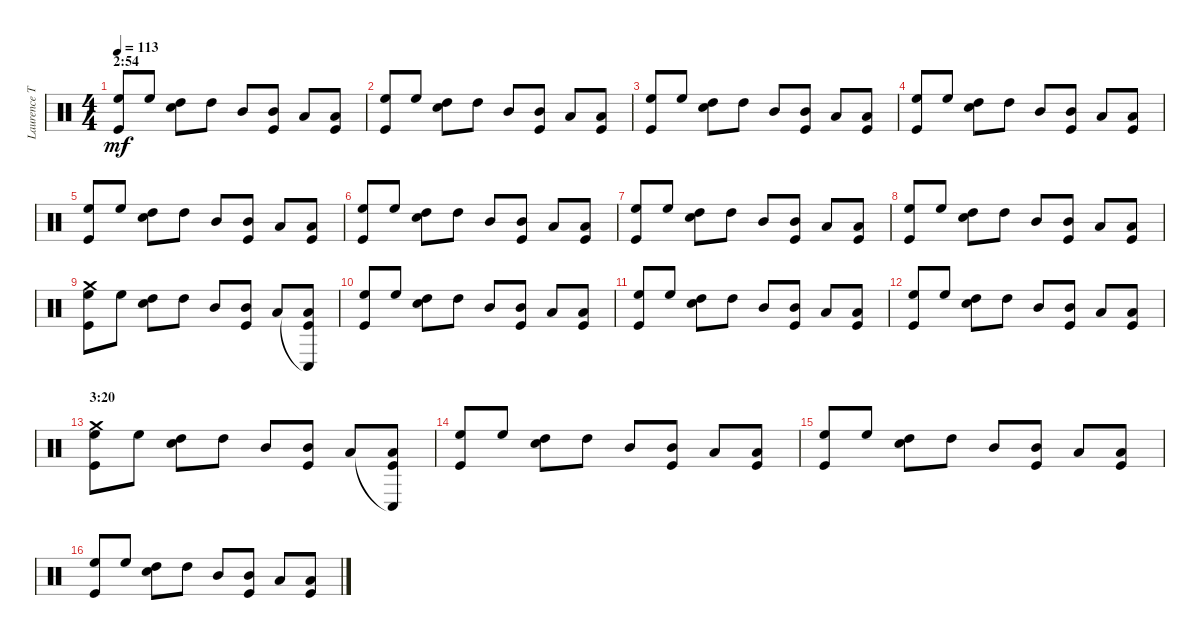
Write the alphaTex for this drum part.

\track ("Laurence Tolhurst (drums)" "Laurence T") {instrument percussion}
\staff {score}
\articulation defaults
\ts (4 4)
\section ("" "2:54")
\tempo 113
\clef neutral
\ks c
("High Floor Tom (hit)" "Kick (hit)").8{dy mf} "High Floor Tom (hit)".8 ("High Tom (hit)" "Snare (hit) 2").8 "High Tom (hit)".8 "Mid Tom (hit)".8 ("Mid Tom (hit)" "Kick (hit)").8 "Low Tom (hit)".8 ("Low Tom (hit)" "Kick (hit)").8 |
("High Floor Tom (hit)" "Kick (hit)").8 "High Floor Tom (hit)".8 ("High Tom (hit)" "Snare (hit) 2").8 "High Tom (hit)".8 "Mid Tom (hit)".8 ("Mid Tom (hit)" "Kick (hit)").8 "Low Tom (hit)".8 ("Low Tom (hit)" "Kick (hit)").8 |
("High Floor Tom (hit)" "Kick (hit)").8 "High Floor Tom (hit)".8 ("High Tom (hit)" "Snare (hit) 2").8 "High Tom (hit)".8 "Mid Tom (hit)".8 ("Mid Tom (hit)" "Kick (hit)").8 "Low Tom (hit)".8 ("Low Tom (hit)" "Kick (hit)").8 |
("High Floor Tom (hit)" "Kick (hit)").8 "High Floor Tom (hit)".8 ("High Tom (hit)" "Snare (hit) 2").8 "High Tom (hit)".8 "Mid Tom (hit)".8 ("Mid Tom (hit)" "Kick (hit)").8 "Low Tom (hit)".8 ("Low Tom (hit)" "Kick (hit)").8 |
("High Floor Tom (hit)" "Kick (hit)").8 "High Floor Tom (hit)".8 ("High Tom (hit)" "Snare (hit) 2").8 "High Tom (hit)".8 "Mid Tom (hit)".8 ("Mid Tom (hit)" "Kick (hit)").8 "Low Tom (hit)".8 ("Low Tom (hit)" "Kick (hit)").8 |
("High Floor Tom (hit)" "Kick (hit)").8 "High Floor Tom (hit)".8 ("High Tom (hit)" "Snare (hit) 2").8 "High Tom (hit)".8 "Mid Tom (hit)".8 ("Mid Tom (hit)" "Kick (hit)").8 "Low Tom (hit)".8 ("Low Tom (hit)" "Kick (hit)").8 |
("High Floor Tom (hit)" "Kick (hit)").8 "High Floor Tom (hit)".8 ("High Tom (hit)" "Snare (hit) 2").8 "High Tom (hit)".8 "Mid Tom (hit)".8 ("Mid Tom (hit)" "Kick (hit)").8 "Low Tom (hit)".8 ("Low Tom (hit)" "Kick (hit)").8 |
("High Floor Tom (hit)" "Kick (hit)").8 "High Floor Tom (hit)".8 ("High Tom (hit)" "Snare (hit) 2").8 "High Tom (hit)".8 "Mid Tom (hit)".8 ("Mid Tom (hit)" "Kick (hit)").8 "Low Tom (hit)".8 ("Low Tom (hit)" "Kick (hit)").8 |
("Crash medium (hit)" "High Floor Tom (hit)" "Kick (hit)").8 "High Floor Tom (hit)".8 ("High Tom (hit)" "Snare (hit) 2").8 "High Tom (hit)".8 "Mid Tom (hit)".8 ("Mid Tom (hit)" "Kick (hit)").8 "Low Tom (hit)".8 ("Conga low (hit)"{t} "Low Tom (hit)" "Kick (hit)").8 |
("High Floor Tom (hit)" "Kick (hit)").8 "High Floor Tom (hit)".8 ("High Tom (hit)" "Snare (hit) 2").8 "High Tom (hit)".8 "Mid Tom (hit)".8 ("Mid Tom (hit)" "Kick (hit)").8 "Low Tom (hit)".8 ("Low Tom (hit)" "Kick (hit)").8 |
("High Floor Tom (hit)" "Kick (hit)").8 "High Floor Tom (hit)".8 ("High Tom (hit)" "Snare (hit) 2").8 "High Tom (hit)".8 "Mid Tom (hit)".8 ("Mid Tom (hit)" "Kick (hit)").8 "Low Tom (hit)".8 ("Low Tom (hit)" "Kick (hit)").8 |
("High Floor Tom (hit)" "Kick (hit)").8 "High Floor Tom (hit)".8 ("High Tom (hit)" "Snare (hit) 2").8 "High Tom (hit)".8 "Mid Tom (hit)".8 ("Mid Tom (hit)" "Kick (hit)").8 "Low Tom (hit)".8 ("Low Tom (hit)" "Kick (hit)").8 |
\section ("" "3:20")
("Crash medium (hit)" "High Floor Tom (hit)" "Kick (hit)").8 "High Floor Tom (hit)".8 ("High Tom (hit)" "Snare (hit) 2").8 "High Tom (hit)".8 "Mid Tom (hit)".8 ("Mid Tom (hit)" "Kick (hit)").8 "Low Tom (hit)".8 ("Conga low (hit)"{t} "Low Tom (hit)" "Kick (hit)").8 |
("High Floor Tom (hit)" "Kick (hit)").8 "High Floor Tom (hit)".8 ("High Tom (hit)" "Snare (hit) 2").8 "High Tom (hit)".8 "Mid Tom (hit)".8 ("Mid Tom (hit)" "Kick (hit)").8 "Low Tom (hit)".8 ("Low Tom (hit)" "Kick (hit)").8 |
("High Floor Tom (hit)" "Kick (hit)").8 "High Floor Tom (hit)".8 ("High Tom (hit)" "Snare (hit) 2").8 "High Tom (hit)".8 "Mid Tom (hit)".8 ("Mid Tom (hit)" "Kick (hit)").8 "Low Tom (hit)".8 ("Low Tom (hit)" "Kick (hit)").8 |
("High Floor Tom (hit)" "Kick (hit)").8 "High Floor Tom (hit)".8 ("High Tom (hit)" "Snare (hit) 2").8 "High Tom (hit)".8 "Mid Tom (hit)".8 ("Mid Tom (hit)" "Kick (hit)").8 "Low Tom (hit)".8 ("Low Tom (hit)" "Kick (hit)").8
